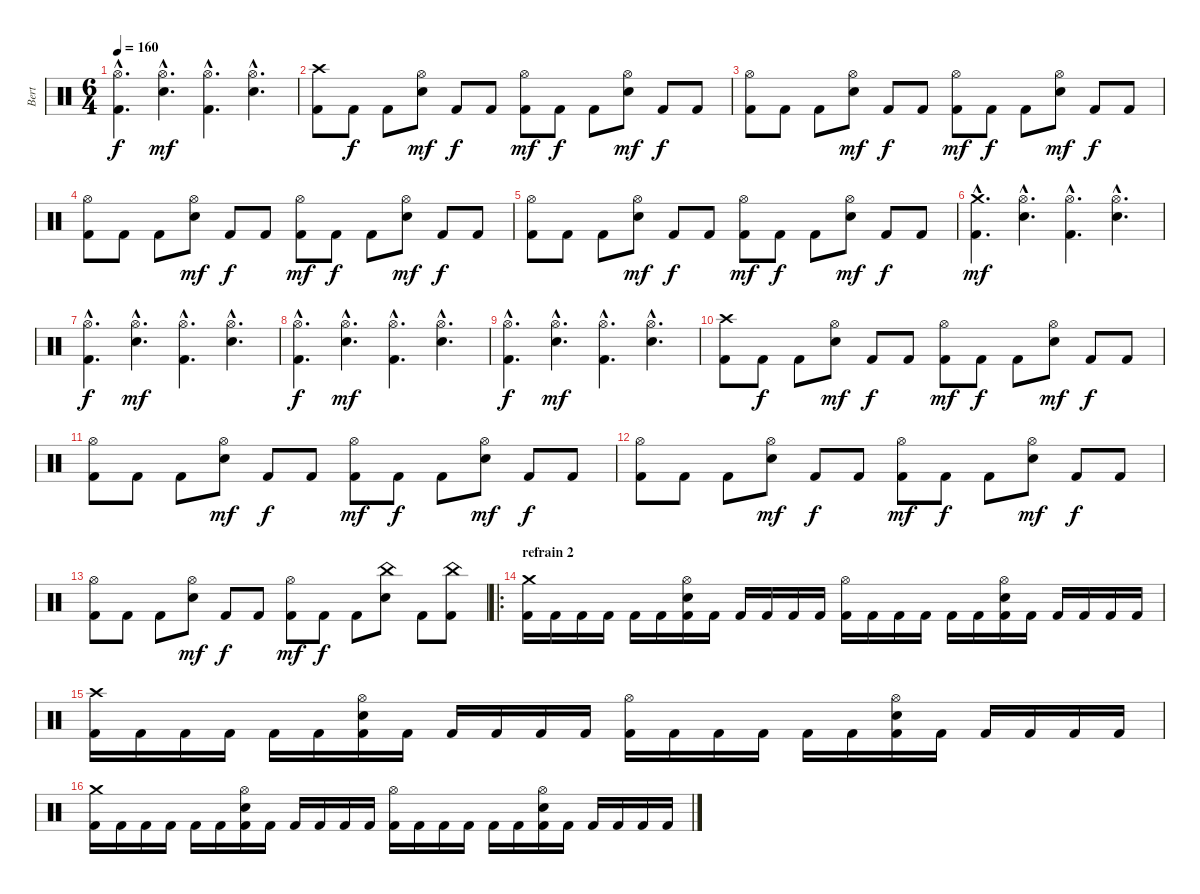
\track ("Bert" "Bert") {instrument percussion}
\staff {score}
\articulation defaults
\ts (6 4)
\tempo 160
\clef neutral
\ks c
("Hi-Hat (open)"{hac} "Kick (hit) 2"{hac}).4{d dy f} ("Hi-Hat (open)"{hac} "Snare (hit) 2"{hac}).4{d dy mf} ("Hi-Hat (open)"{hac} "Kick (hit) 2"{hac}).4{d} ("Hi-Hat (open)"{hac} "Snare (hit) 2"{hac}).4{d} |
("Crash high (hit)" "Kick (hit) 2").8 "Kick (hit) 2".8{dy f} "Kick (hit) 2".8 ("Hi-Hat (open)" "Snare (hit) 2").8{dy mf} "Kick (hit) 2".8{dy f} "Kick (hit) 2".8 ("Hi-Hat (open)" "Kick (hit) 2").8{dy mf} "Kick (hit) 2".8{dy f} "Kick (hit) 2".8 ("Hi-Hat (open)" "Snare (hit) 2").8{dy mf} "Kick (hit) 2".8{dy f} "Kick (hit) 2".8 |
("Hi-Hat (open)" "Kick (hit) 2").8 "Kick (hit) 2".8 "Kick (hit) 2".8 ("Hi-Hat (open)" "Snare (hit) 2").8{dy mf} "Kick (hit) 2".8{dy f} "Kick (hit) 2".8 ("Hi-Hat (open)" "Kick (hit) 2").8{dy mf} "Kick (hit) 2".8{dy f} "Kick (hit) 2".8 ("Hi-Hat (open)" "Snare (hit) 2").8{dy mf} "Kick (hit) 2".8{dy f} "Kick (hit) 2".8 |
("Hi-Hat (open)" "Kick (hit) 2").8 "Kick (hit) 2".8 "Kick (hit) 2".8 ("Hi-Hat (open)" "Snare (hit) 2").8{dy mf} "Kick (hit) 2".8{dy f} "Kick (hit) 2".8 ("Hi-Hat (open)" "Kick (hit) 2").8{dy mf} "Kick (hit) 2".8{dy f} "Kick (hit) 2".8 ("Hi-Hat (open)" "Snare (hit) 2").8{dy mf} "Kick (hit) 2".8{dy f} "Kick (hit) 2".8 |
("Hi-Hat (open)" "Kick (hit) 2").8 "Kick (hit) 2".8 "Kick (hit) 2".8 ("Hi-Hat (open)" "Snare (hit) 2").8{dy mf} "Kick (hit) 2".8{dy f} "Kick (hit) 2".8 ("Hi-Hat (open)" "Kick (hit) 2").8{dy mf} "Kick (hit) 2".8{dy f} "Kick (hit) 2".8 ("Hi-Hat (open)" "Snare (hit) 2").8{dy mf} "Kick (hit) 2".8{dy f} "Kick (hit) 2".8 |
("Crash medium (hit)"{hac} "Kick (hit) 2"{hac}).4{d dy mf} ("Hi-Hat (open)"{hac} "Snare (hit) 2"{hac}).4{d} ("Hi-Hat (open)"{hac} "Kick (hit) 2"{hac}).4{d} ("Hi-Hat (open)"{hac} "Snare (hit) 2"{hac}).4{d} |
("Hi-Hat (open)"{hac} "Kick (hit) 2"{hac}).4{d dy f} ("Hi-Hat (open)"{hac} "Snare (hit) 2"{hac}).4{d dy mf} ("Hi-Hat (open)"{hac} "Kick (hit) 2"{hac}).4{d} ("Hi-Hat (open)"{hac} "Snare (hit) 2"{hac}).4{d} |
("Hi-Hat (open)"{hac} "Kick (hit) 2"{hac}).4{d dy f} ("Hi-Hat (open)"{hac} "Snare (hit) 2"{hac}).4{d dy mf} ("Hi-Hat (open)"{hac} "Kick (hit) 2"{hac}).4{d} ("Hi-Hat (open)"{hac} "Snare (hit) 2"{hac}).4{d} |
("Hi-Hat (open)"{hac} "Kick (hit) 2"{hac}).4{d dy f} ("Hi-Hat (open)"{hac} "Snare (hit) 2"{hac}).4{d dy mf} ("Hi-Hat (open)"{hac} "Kick (hit) 2"{hac}).4{d} ("Hi-Hat (open)"{hac} "Snare (hit) 2"{hac}).4{d} |
("Crash high (hit)" "Kick (hit) 2").8 "Kick (hit) 2".8{dy f} "Kick (hit) 2".8 ("Hi-Hat (open)" "Snare (hit) 2").8{dy mf} "Kick (hit) 2".8{dy f} "Kick (hit) 2".8 ("Hi-Hat (open)" "Kick (hit) 2").8{dy mf} "Kick (hit) 2".8{dy f} "Kick (hit) 2".8 ("Hi-Hat (open)" "Snare (hit) 2").8{dy mf} "Kick (hit) 2".8{dy f} "Kick (hit) 2".8 |
("Hi-Hat (open)" "Kick (hit) 2").8 "Kick (hit) 2".8 "Kick (hit) 2".8 ("Hi-Hat (open)" "Snare (hit) 2").8{dy mf} "Kick (hit) 2".8{dy f} "Kick (hit) 2".8 ("Hi-Hat (open)" "Kick (hit) 2").8{dy mf} "Kick (hit) 2".8{dy f} "Kick (hit) 2".8 ("Hi-Hat (open)" "Snare (hit) 2").8{dy mf} "Kick (hit) 2".8{dy f} "Kick (hit) 2".8 |
("Hi-Hat (open)" "Kick (hit) 2").8 "Kick (hit) 2".8 "Kick (hit) 2".8 ("Hi-Hat (open)" "Snare (hit) 2").8{dy mf} "Kick (hit) 2".8{dy f} "Kick (hit) 2".8 ("Hi-Hat (open)" "Kick (hit) 2").8{dy mf} "Kick (hit) 2".8{dy f} "Kick (hit) 2".8 ("Hi-Hat (open)" "Snare (hit) 2").8{dy mf} "Kick (hit) 2".8{dy f} "Kick (hit) 2".8 |
("Hi-Hat (open)" "Kick (hit) 2").8 "Kick (hit) 2".8 "Kick (hit) 2".8 ("Hi-Hat (open)" "Snare (hit) 2").8{dy mf} "Kick (hit) 2".8{dy f} "Kick (hit) 2".8 ("Hi-Hat (open)" "Kick (hit) 2").8{dy mf} "Kick (hit) 2".8{dy f} "Kick (hit) 2".8 ("China (hit)" "Snare (hit) 2").8 "Kick (hit) 2".8 ("China (hit)" "Kick (hit) 2").8 |
\ro
\section ("" "refrain 2")
("Crash medium (hit)" "Kick (hit) 2").16 "Kick (hit) 2".16 "Kick (hit) 2".16 "Kick (hit) 2".16 "Kick (hit) 2".16 "Kick (hit) 2".16 ("Hi-Hat (open)" "Snare (hit) 2" "Kick (hit) 2").16 "Kick (hit) 2".16 "Kick (hit) 2".16 "Kick (hit) 2".16 "Kick (hit) 2".16 "Kick (hit) 2".16 ("Hi-Hat (open)" "Kick (hit) 2").16 "Kick (hit) 2".16 "Kick (hit) 2".16 "Kick (hit) 2".16 "Kick (hit) 2".16 "Kick (hit) 2".16 ("Hi-Hat (open)" "Snare (hit) 2" "Kick (hit) 2").16 "Kick (hit) 2".16 "Kick (hit) 2".16 "Kick (hit) 2".16 "Kick (hit) 2".16 "Kick (hit) 2".16 |
("Crash high (hit)" "Kick (hit) 2").16 "Kick (hit) 2".16 "Kick (hit) 2".16 "Kick (hit) 2".16 "Kick (hit) 2".16 "Kick (hit) 2".16 ("Hi-Hat (open)" "Snare (hit) 2" "Kick (hit) 2").16 "Kick (hit) 2".16 "Kick (hit) 2".16 "Kick (hit) 2".16 "Kick (hit) 2".16 "Kick (hit) 2".16 ("Hi-Hat (open)" "Kick (hit) 2").16 "Kick (hit) 2".16 "Kick (hit) 2".16 "Kick (hit) 2".16 "Kick (hit) 2".16 "Kick (hit) 2".16 ("Hi-Hat (open)" "Snare (hit) 2" "Kick (hit) 2").16 "Kick (hit) 2".16 "Kick (hit) 2".16 "Kick (hit) 2".16 "Kick (hit) 2".16 "Kick (hit) 2".16 |
("Crash medium (hit)" "Kick (hit) 2").16 "Kick (hit) 2".16 "Kick (hit) 2".16 "Kick (hit) 2".16 "Kick (hit) 2".16 "Kick (hit) 2".16 ("Hi-Hat (open)" "Snare (hit) 2" "Kick (hit) 2").16 "Kick (hit) 2".16 "Kick (hit) 2".16 "Kick (hit) 2".16 "Kick (hit) 2".16 "Kick (hit) 2".16 ("Hi-Hat (open)" "Kick (hit) 2").16 "Kick (hit) 2".16 "Kick (hit) 2".16 "Kick (hit) 2".16 "Kick (hit) 2".16 "Kick (hit) 2".16 ("Hi-Hat (open)" "Snare (hit) 2" "Kick (hit) 2").16 "Kick (hit) 2".16 "Kick (hit) 2".16 "Kick (hit) 2".16 "Kick (hit) 2".16 "Kick (hit) 2".16
